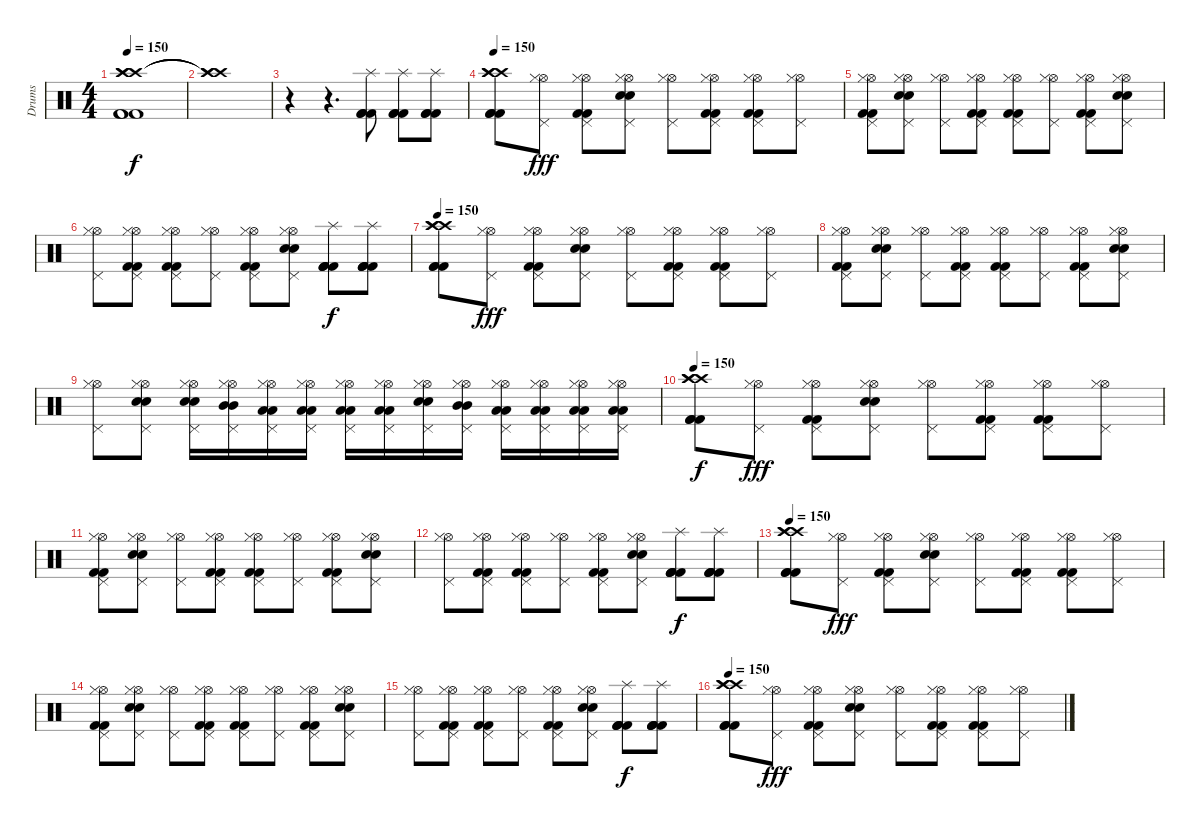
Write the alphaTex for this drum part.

\track ("Drums" "Drums") {instrument percussion}
\staff {score}
\articulation defaults
\ts (4 4)
\tempo 150
\clef neutral
\ks c
("Crash high (hit)" "Crash high (hit)" "Crash high (hit)" "Kick (hit) 2" "Kick (hit) 2" "Kick (hit) 2").1{dy f} |
("Crash high (hit)"{t} "Crash high (hit)"{t} "Crash high (hit)"{t}).1 |
r.4 r.4{d} ("Splash (hit)" "Kick (hit) 2" "Kick (hit) 2" "Kick (hit) 2").8 ("Splash (hit)" "Kick (hit) 2" "Kick (hit) 2" "Kick (hit) 2").8 ("Splash (hit)" "Kick (hit) 2" "Kick (hit) 2" "Kick (hit) 2").8 |
\tempo 150
("Crash high (hit)" "Crash high (hit)" "Crash high (hit)" "Kick (hit) 2" "Kick (hit) 2" "Kick (hit) 2").8 ("Hi-Hat (open)" "Pedal Hi-Hat (hit)" "Hi-Hat (closed)").8{dy fff} ("Hi-Hat (open)" "Pedal Hi-Hat (hit)" "Hi-Hat (closed)" "Kick (hit) 2" "Kick (hit) 2").8 ("Hi-Hat (open)" "Pedal Hi-Hat (hit)" "Hi-Hat (closed)" "Snare (hit) 2" "Snare (hit) 2").8 ("Hi-Hat (open)" "Pedal Hi-Hat (hit)" "Hi-Hat (closed)").8 ("Hi-Hat (open)" "Pedal Hi-Hat (hit)" "Hi-Hat (closed)" "Kick (hit) 2" "Kick (hit) 2").8 ("Hi-Hat (open)" "Pedal Hi-Hat (hit)" "Hi-Hat (closed)" "Kick (hit) 2" "Kick (hit) 2").8 ("Hi-Hat (open)" "Pedal Hi-Hat (hit)" "Hi-Hat (closed)").8 |
("Hi-Hat (open)" "Pedal Hi-Hat (hit)" "Hi-Hat (closed)" "Kick (hit) 2" "Kick (hit) 2").8 ("Hi-Hat (open)" "Pedal Hi-Hat (hit)" "Hi-Hat (closed)" "Snare (hit) 2" "Snare (hit) 2").8 ("Hi-Hat (open)" "Pedal Hi-Hat (hit)" "Hi-Hat (closed)").8 ("Hi-Hat (open)" "Pedal Hi-Hat (hit)" "Hi-Hat (closed)" "Kick (hit) 2" "Kick (hit) 2").8 ("Hi-Hat (open)" "Pedal Hi-Hat (hit)" "Hi-Hat (closed)" "Kick (hit) 2" "Kick (hit) 2").8 ("Hi-Hat (open)" "Pedal Hi-Hat (hit)" "Hi-Hat (closed)").8 ("Hi-Hat (open)" "Pedal Hi-Hat (hit)" "Hi-Hat (closed)" "Kick (hit) 2" "Kick (hit) 2").8 ("Hi-Hat (open)" "Pedal Hi-Hat (hit)" "Hi-Hat (closed)" "Snare (hit) 2" "Snare (hit) 2").8 |
("Hi-Hat (open)" "Pedal Hi-Hat (hit)" "Hi-Hat (closed)").8 ("Hi-Hat (open)" "Pedal Hi-Hat (hit)" "Hi-Hat (closed)" "Kick (hit) 2" "Kick (hit) 2").8 ("Hi-Hat (open)" "Pedal Hi-Hat (hit)" "Hi-Hat (closed)" "Kick (hit) 2" "Kick (hit) 2").8 ("Hi-Hat (open)" "Pedal Hi-Hat (hit)" "Hi-Hat (closed)").8 ("Hi-Hat (open)" "Pedal Hi-Hat (hit)" "Hi-Hat (closed)" "Kick (hit) 2" "Kick (hit) 2").8 ("Hi-Hat (open)" "Pedal Hi-Hat (hit)" "Hi-Hat (closed)" "Snare (hit) 2" "Snare (hit) 2").8 ("Splash (hit)" "Kick (hit) 2" "Kick (hit) 2" "Kick (hit) 2" "Kick (hit) 2").8{dy f} ("Splash (hit)" "Kick (hit) 2" "Kick (hit) 2" "Kick (hit) 2" "Kick (hit) 2").8 |
\tempo 150
("Crash high (hit)" "Crash high (hit)" "Crash high (hit)" "Kick (hit) 2" "Kick (hit) 2" "Kick (hit) 2").8 ("Hi-Hat (open)" "Pedal Hi-Hat (hit)" "Hi-Hat (closed)").8{dy fff} ("Hi-Hat (open)" "Pedal Hi-Hat (hit)" "Hi-Hat (closed)" "Kick (hit) 2" "Kick (hit) 2").8 ("Hi-Hat (open)" "Pedal Hi-Hat (hit)" "Hi-Hat (closed)" "Snare (hit) 2" "Snare (hit) 2").8 ("Hi-Hat (open)" "Pedal Hi-Hat (hit)" "Hi-Hat (closed)").8 ("Hi-Hat (open)" "Pedal Hi-Hat (hit)" "Hi-Hat (closed)" "Kick (hit) 2" "Kick (hit) 2").8 ("Hi-Hat (open)" "Pedal Hi-Hat (hit)" "Hi-Hat (closed)" "Kick (hit) 2" "Kick (hit) 2").8 ("Hi-Hat (open)" "Pedal Hi-Hat (hit)" "Hi-Hat (closed)").8 |
("Hi-Hat (open)" "Pedal Hi-Hat (hit)" "Hi-Hat (closed)" "Kick (hit) 2" "Kick (hit) 2").8 ("Hi-Hat (open)" "Pedal Hi-Hat (hit)" "Hi-Hat (closed)" "Snare (hit) 2" "Snare (hit) 2").8 ("Hi-Hat (open)" "Pedal Hi-Hat (hit)" "Hi-Hat (closed)").8 ("Hi-Hat (open)" "Pedal Hi-Hat (hit)" "Hi-Hat (closed)" "Kick (hit) 2" "Kick (hit) 2").8 ("Hi-Hat (open)" "Pedal Hi-Hat (hit)" "Hi-Hat (closed)" "Kick (hit) 2" "Kick (hit) 2").8 ("Hi-Hat (open)" "Pedal Hi-Hat (hit)" "Hi-Hat (closed)").8 ("Hi-Hat (open)" "Pedal Hi-Hat (hit)" "Hi-Hat (closed)" "Kick (hit) 2" "Kick (hit) 2").8 ("Hi-Hat (open)" "Pedal Hi-Hat (hit)" "Hi-Hat (closed)" "Snare (hit) 2" "Snare (hit) 2").8 |
("Hi-Hat (open)" "Pedal Hi-Hat (hit)" "Hi-Hat (closed)").8 ("Hi-Hat (open)" "Pedal Hi-Hat (hit)" "Hi-Hat (closed)" "Snare (hit) 2" "Snare (hit) 2").8 ("Hi-Hat (open)" "Pedal Hi-Hat (hit)" "Hi-Hat (closed)" "Snare (hit) 2" "Snare (hit) 2").16 ("Hi-Hat (open)" "Pedal Hi-Hat (hit)" "Hi-Hat (closed)" "Mid Tom (hit)" "Mid Tom (hit)").16 ("Hi-Hat (open)" "Pedal Hi-Hat (hit)" "Hi-Hat (closed)" "Low Tom (hit)" "Low Tom (hit)").16 ("Hi-Hat (open)" "Pedal Hi-Hat (hit)" "Hi-Hat (closed)" "Low Floor Tom (hit)" "Low Floor Tom (hit)").16 ("Hi-Hat (open)" "Pedal Hi-Hat (hit)" "Hi-Hat (closed)" "Low Floor Tom (hit)" "Low Floor Tom (hit)").16 ("Hi-Hat (open)" "Pedal Hi-Hat (hit)" "Hi-Hat (closed)" "Low Floor Tom (hit)" "Low Floor Tom (hit)").16 ("Hi-Hat (open)" "Pedal Hi-Hat (hit)" "Hi-Hat (closed)" "Snare (hit) 2" "Snare (hit) 2").16 ("Hi-Hat (open)" "Pedal Hi-Hat (hit)" "Hi-Hat (closed)" "Mid Tom (hit)" "Mid Tom (hit)").16 ("Hi-Hat (open)" "Pedal Hi-Hat (hit)" "Hi-Hat (closed)" "Low Tom (hit)" "Low Tom (hit)").16 ("Hi-Hat (open)" "Pedal Hi-Hat (hit)" "Hi-Hat (closed)" "Low Floor Tom (hit)" "Low Floor Tom (hit)").16 ("Hi-Hat (open)" "Pedal Hi-Hat (hit)" "Hi-Hat (closed)" "Low Floor Tom (hit)" "Low Floor Tom (hit)").16 ("Hi-Hat (open)" "Pedal Hi-Hat (hit)" "Hi-Hat (closed)" "Low Floor Tom (hit)" "Low Floor Tom (hit)").16 |
\tempo 150
("Crash high (hit)" "Crash high (hit)" "Crash high (hit)" "Kick (hit) 2" "Kick (hit) 2" "Kick (hit) 2").8{dy f} ("Hi-Hat (open)" "Pedal Hi-Hat (hit)" "Hi-Hat (closed)").8{dy fff} ("Hi-Hat (open)" "Pedal Hi-Hat (hit)" "Hi-Hat (closed)" "Kick (hit) 2" "Kick (hit) 2").8 ("Hi-Hat (open)" "Pedal Hi-Hat (hit)" "Hi-Hat (closed)" "Snare (hit) 2" "Snare (hit) 2").8 ("Hi-Hat (open)" "Pedal Hi-Hat (hit)" "Hi-Hat (closed)").8 ("Hi-Hat (open)" "Pedal Hi-Hat (hit)" "Hi-Hat (closed)" "Kick (hit) 2" "Kick (hit) 2").8 ("Hi-Hat (open)" "Pedal Hi-Hat (hit)" "Hi-Hat (closed)" "Kick (hit) 2" "Kick (hit) 2").8 ("Hi-Hat (open)" "Pedal Hi-Hat (hit)" "Hi-Hat (closed)").8 |
("Hi-Hat (open)" "Pedal Hi-Hat (hit)" "Hi-Hat (closed)" "Kick (hit) 2" "Kick (hit) 2").8 ("Hi-Hat (open)" "Pedal Hi-Hat (hit)" "Hi-Hat (closed)" "Snare (hit) 2" "Snare (hit) 2").8 ("Hi-Hat (open)" "Pedal Hi-Hat (hit)" "Hi-Hat (closed)").8 ("Hi-Hat (open)" "Pedal Hi-Hat (hit)" "Hi-Hat (closed)" "Kick (hit) 2" "Kick (hit) 2").8 ("Hi-Hat (open)" "Pedal Hi-Hat (hit)" "Hi-Hat (closed)" "Kick (hit) 2" "Kick (hit) 2").8 ("Hi-Hat (open)" "Pedal Hi-Hat (hit)" "Hi-Hat (closed)").8 ("Hi-Hat (open)" "Pedal Hi-Hat (hit)" "Hi-Hat (closed)" "Kick (hit) 2" "Kick (hit) 2").8 ("Hi-Hat (open)" "Pedal Hi-Hat (hit)" "Hi-Hat (closed)" "Snare (hit) 2" "Snare (hit) 2").8 |
("Hi-Hat (open)" "Pedal Hi-Hat (hit)" "Hi-Hat (closed)").8 ("Hi-Hat (open)" "Pedal Hi-Hat (hit)" "Hi-Hat (closed)" "Kick (hit) 2" "Kick (hit) 2").8 ("Hi-Hat (open)" "Pedal Hi-Hat (hit)" "Hi-Hat (closed)" "Kick (hit) 2" "Kick (hit) 2").8 ("Hi-Hat (open)" "Pedal Hi-Hat (hit)" "Hi-Hat (closed)").8 ("Hi-Hat (open)" "Pedal Hi-Hat (hit)" "Hi-Hat (closed)" "Kick (hit) 2" "Kick (hit) 2").8 ("Hi-Hat (open)" "Pedal Hi-Hat (hit)" "Hi-Hat (closed)" "Snare (hit) 2" "Snare (hit) 2").8 ("Splash (hit)" "Kick (hit) 2" "Kick (hit) 2" "Kick (hit) 2" "Kick (hit) 2").8{dy f} ("Splash (hit)" "Kick (hit) 2" "Kick (hit) 2" "Kick (hit) 2" "Kick (hit) 2").8 |
\tempo 150
("Crash high (hit)" "Crash high (hit)" "Crash high (hit)" "Kick (hit) 2" "Kick (hit) 2" "Kick (hit) 2").8 ("Hi-Hat (open)" "Pedal Hi-Hat (hit)" "Hi-Hat (closed)").8{dy fff} ("Hi-Hat (open)" "Pedal Hi-Hat (hit)" "Hi-Hat (closed)" "Kick (hit) 2" "Kick (hit) 2").8 ("Hi-Hat (open)" "Pedal Hi-Hat (hit)" "Hi-Hat (closed)" "Snare (hit) 2" "Snare (hit) 2").8 ("Hi-Hat (open)" "Pedal Hi-Hat (hit)" "Hi-Hat (closed)").8 ("Hi-Hat (open)" "Pedal Hi-Hat (hit)" "Hi-Hat (closed)" "Kick (hit) 2" "Kick (hit) 2").8 ("Hi-Hat (open)" "Pedal Hi-Hat (hit)" "Hi-Hat (closed)" "Kick (hit) 2" "Kick (hit) 2").8 ("Hi-Hat (open)" "Pedal Hi-Hat (hit)" "Hi-Hat (closed)").8 |
("Hi-Hat (open)" "Pedal Hi-Hat (hit)" "Hi-Hat (closed)" "Kick (hit) 2" "Kick (hit) 2").8 ("Hi-Hat (open)" "Pedal Hi-Hat (hit)" "Hi-Hat (closed)" "Snare (hit) 2" "Snare (hit) 2").8 ("Hi-Hat (open)" "Pedal Hi-Hat (hit)" "Hi-Hat (closed)").8 ("Hi-Hat (open)" "Pedal Hi-Hat (hit)" "Hi-Hat (closed)" "Kick (hit) 2" "Kick (hit) 2").8 ("Hi-Hat (open)" "Pedal Hi-Hat (hit)" "Hi-Hat (closed)" "Kick (hit) 2" "Kick (hit) 2").8 ("Hi-Hat (open)" "Pedal Hi-Hat (hit)" "Hi-Hat (closed)").8 ("Hi-Hat (open)" "Pedal Hi-Hat (hit)" "Hi-Hat (closed)" "Kick (hit) 2" "Kick (hit) 2").8 ("Hi-Hat (open)" "Pedal Hi-Hat (hit)" "Hi-Hat (closed)" "Snare (hit) 2" "Snare (hit) 2").8 |
("Hi-Hat (open)" "Pedal Hi-Hat (hit)" "Hi-Hat (closed)").8 ("Hi-Hat (open)" "Pedal Hi-Hat (hit)" "Hi-Hat (closed)" "Kick (hit) 2" "Kick (hit) 2").8 ("Hi-Hat (open)" "Pedal Hi-Hat (hit)" "Hi-Hat (closed)" "Kick (hit) 2" "Kick (hit) 2").8 ("Hi-Hat (open)" "Pedal Hi-Hat (hit)" "Hi-Hat (closed)").8 ("Hi-Hat (open)" "Pedal Hi-Hat (hit)" "Hi-Hat (closed)" "Kick (hit) 2" "Kick (hit) 2").8 ("Hi-Hat (open)" "Pedal Hi-Hat (hit)" "Hi-Hat (closed)" "Snare (hit) 2" "Snare (hit) 2").8 ("Splash (hit)" "Kick (hit) 2" "Kick (hit) 2" "Kick (hit) 2" "Kick (hit) 2").8{dy f} ("Splash (hit)" "Kick (hit) 2" "Kick (hit) 2" "Kick (hit) 2" "Kick (hit) 2").8 |
\tempo 150
("Crash high (hit)" "Crash high (hit)" "Crash high (hit)" "Kick (hit) 2" "Kick (hit) 2" "Kick (hit) 2").8 ("Hi-Hat (open)" "Pedal Hi-Hat (hit)" "Hi-Hat (closed)").8{dy fff} ("Hi-Hat (open)" "Pedal Hi-Hat (hit)" "Hi-Hat (closed)" "Kick (hit) 2" "Kick (hit) 2").8 ("Hi-Hat (open)" "Pedal Hi-Hat (hit)" "Hi-Hat (closed)" "Snare (hit) 2" "Snare (hit) 2").8 ("Hi-Hat (open)" "Pedal Hi-Hat (hit)" "Hi-Hat (closed)").8 ("Hi-Hat (open)" "Pedal Hi-Hat (hit)" "Hi-Hat (closed)" "Kick (hit) 2" "Kick (hit) 2").8 ("Hi-Hat (open)" "Pedal Hi-Hat (hit)" "Hi-Hat (closed)" "Kick (hit) 2" "Kick (hit) 2").8 ("Hi-Hat (open)" "Pedal Hi-Hat (hit)" "Hi-Hat (closed)").8
